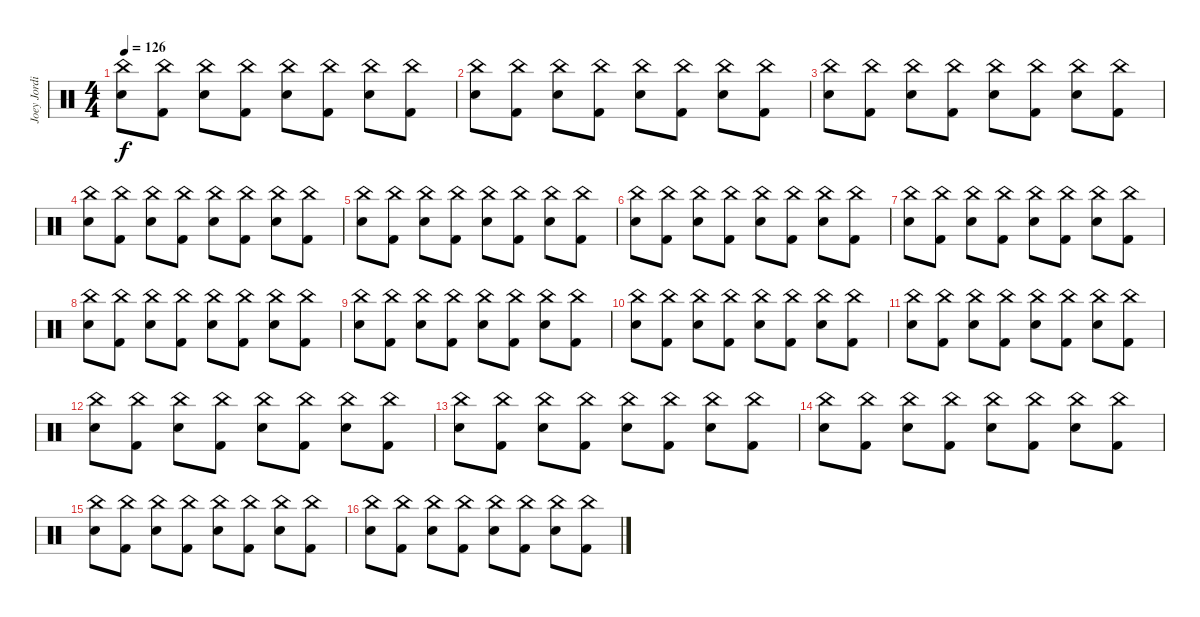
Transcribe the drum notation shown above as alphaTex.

\track ("Joey Jordison" "Joey Jordi") {instrument percussion}
\staff {score}
\articulation defaults
\ts (4 4)
\tempo 126
\clef neutral
\ks c
("China (hit)" "Snare (hit) 2").8{dy f} ("China (hit)" "Kick (hit) 2").8 ("China (hit)" "Snare (hit) 2").8 ("China (hit)" "Kick (hit) 2").8 ("China (hit)" "Snare (hit) 2").8 ("China (hit)" "Kick (hit) 2").8 ("China (hit)" "Snare (hit) 2").8 ("China (hit)" "Kick (hit) 2").8 |
("China (hit)" "Snare (hit) 2").8 ("China (hit)" "Kick (hit) 2").8 ("China (hit)" "Snare (hit) 2").8 ("China (hit)" "Kick (hit) 2").8 ("China (hit)" "Snare (hit) 2").8 ("China (hit)" "Kick (hit) 2").8 ("China (hit)" "Snare (hit) 2").8 ("China (hit)" "Kick (hit) 2").8 |
("China (hit)" "Snare (hit) 2").8 ("China (hit)" "Kick (hit) 2").8 ("China (hit)" "Snare (hit) 2").8 ("China (hit)" "Kick (hit) 2").8 ("China (hit)" "Snare (hit) 2").8 ("China (hit)" "Kick (hit) 2").8 ("China (hit)" "Snare (hit) 2").8 ("China (hit)" "Kick (hit) 2").8 |
("China (hit)" "Snare (hit) 2").8 ("China (hit)" "Kick (hit) 2").8 ("China (hit)" "Snare (hit) 2").8 ("China (hit)" "Kick (hit) 2").8 ("China (hit)" "Snare (hit) 2").8 ("China (hit)" "Kick (hit) 2").8 ("China (hit)" "Snare (hit) 2").8 ("China (hit)" "Kick (hit) 2").8 |
("China (hit)" "Snare (hit) 2").8 ("China (hit)" "Kick (hit) 2").8 ("China (hit)" "Snare (hit) 2").8 ("China (hit)" "Kick (hit) 2").8 ("China (hit)" "Snare (hit) 2").8 ("China (hit)" "Kick (hit) 2").8 ("China (hit)" "Snare (hit) 2").8 ("China (hit)" "Kick (hit) 2").8 |
("China (hit)" "Snare (hit) 2").8 ("China (hit)" "Kick (hit) 2").8 ("China (hit)" "Snare (hit) 2").8 ("China (hit)" "Kick (hit) 2").8 ("China (hit)" "Snare (hit) 2").8 ("China (hit)" "Kick (hit) 2").8 ("China (hit)" "Snare (hit) 2").8 ("China (hit)" "Kick (hit) 2").8 |
("China (hit)" "Snare (hit) 2").8 ("China (hit)" "Kick (hit) 2").8 ("China (hit)" "Snare (hit) 2").8 ("China (hit)" "Kick (hit) 2").8 ("China (hit)" "Snare (hit) 2").8 ("China (hit)" "Kick (hit) 2").8 ("China (hit)" "Snare (hit) 2").8 ("China (hit)" "Kick (hit) 2").8 |
("China (hit)" "Snare (hit) 2").8 ("China (hit)" "Kick (hit) 2").8 ("China (hit)" "Snare (hit) 2").8 ("China (hit)" "Kick (hit) 2").8 ("China (hit)" "Snare (hit) 2").8 ("China (hit)" "Kick (hit) 2").8 ("China (hit)" "Snare (hit) 2").8 ("China (hit)" "Kick (hit) 2").8 |
("China (hit)" "Snare (hit) 2").8 ("China (hit)" "Kick (hit) 2").8 ("China (hit)" "Snare (hit) 2").8 ("China (hit)" "Kick (hit) 2").8 ("China (hit)" "Snare (hit) 2").8 ("China (hit)" "Kick (hit) 2").8 ("China (hit)" "Snare (hit) 2").8 ("China (hit)" "Kick (hit) 2").8 |
("China (hit)" "Snare (hit) 2").8 ("China (hit)" "Kick (hit) 2").8 ("China (hit)" "Snare (hit) 2").8 ("China (hit)" "Kick (hit) 2").8 ("China (hit)" "Snare (hit) 2").8 ("China (hit)" "Kick (hit) 2").8 ("China (hit)" "Snare (hit) 2").8 ("China (hit)" "Kick (hit) 2").8 |
("China (hit)" "Snare (hit) 2").8 ("China (hit)" "Kick (hit) 2").8 ("China (hit)" "Snare (hit) 2").8 ("China (hit)" "Kick (hit) 2").8 ("China (hit)" "Snare (hit) 2").8 ("China (hit)" "Kick (hit) 2").8 ("China (hit)" "Snare (hit) 2").8 ("China (hit)" "Kick (hit) 2").8 |
("China (hit)" "Snare (hit) 2").8 ("China (hit)" "Kick (hit) 2").8 ("China (hit)" "Snare (hit) 2").8 ("China (hit)" "Kick (hit) 2").8 ("China (hit)" "Snare (hit) 2").8 ("China (hit)" "Kick (hit) 2").8 ("China (hit)" "Snare (hit) 2").8 ("China (hit)" "Kick (hit) 2").8 |
("China (hit)" "Snare (hit) 2").8 ("China (hit)" "Kick (hit) 2").8 ("China (hit)" "Snare (hit) 2").8 ("China (hit)" "Kick (hit) 2").8 ("China (hit)" "Snare (hit) 2").8 ("China (hit)" "Kick (hit) 2").8 ("China (hit)" "Snare (hit) 2").8 ("China (hit)" "Kick (hit) 2").8 |
("China (hit)" "Snare (hit) 2").8 ("China (hit)" "Kick (hit) 2").8 ("China (hit)" "Snare (hit) 2").8 ("China (hit)" "Kick (hit) 2").8 ("China (hit)" "Snare (hit) 2").8 ("China (hit)" "Kick (hit) 2").8 ("China (hit)" "Snare (hit) 2").8 ("China (hit)" "Kick (hit) 2").8 |
("China (hit)" "Snare (hit) 2").8 ("China (hit)" "Kick (hit) 2").8 ("China (hit)" "Snare (hit) 2").8 ("China (hit)" "Kick (hit) 2").8 ("China (hit)" "Snare (hit) 2").8 ("China (hit)" "Kick (hit) 2").8 ("China (hit)" "Snare (hit) 2").8 ("China (hit)" "Kick (hit) 2").8 |
("China (hit)" "Snare (hit) 2").8 ("China (hit)" "Kick (hit) 2").8 ("China (hit)" "Snare (hit) 2").8 ("China (hit)" "Kick (hit) 2").8 ("China (hit)" "Snare (hit) 2").8 ("China (hit)" "Kick (hit) 2").8 ("China (hit)" "Snare (hit) 2").8 ("China (hit)" "Kick (hit) 2").8
